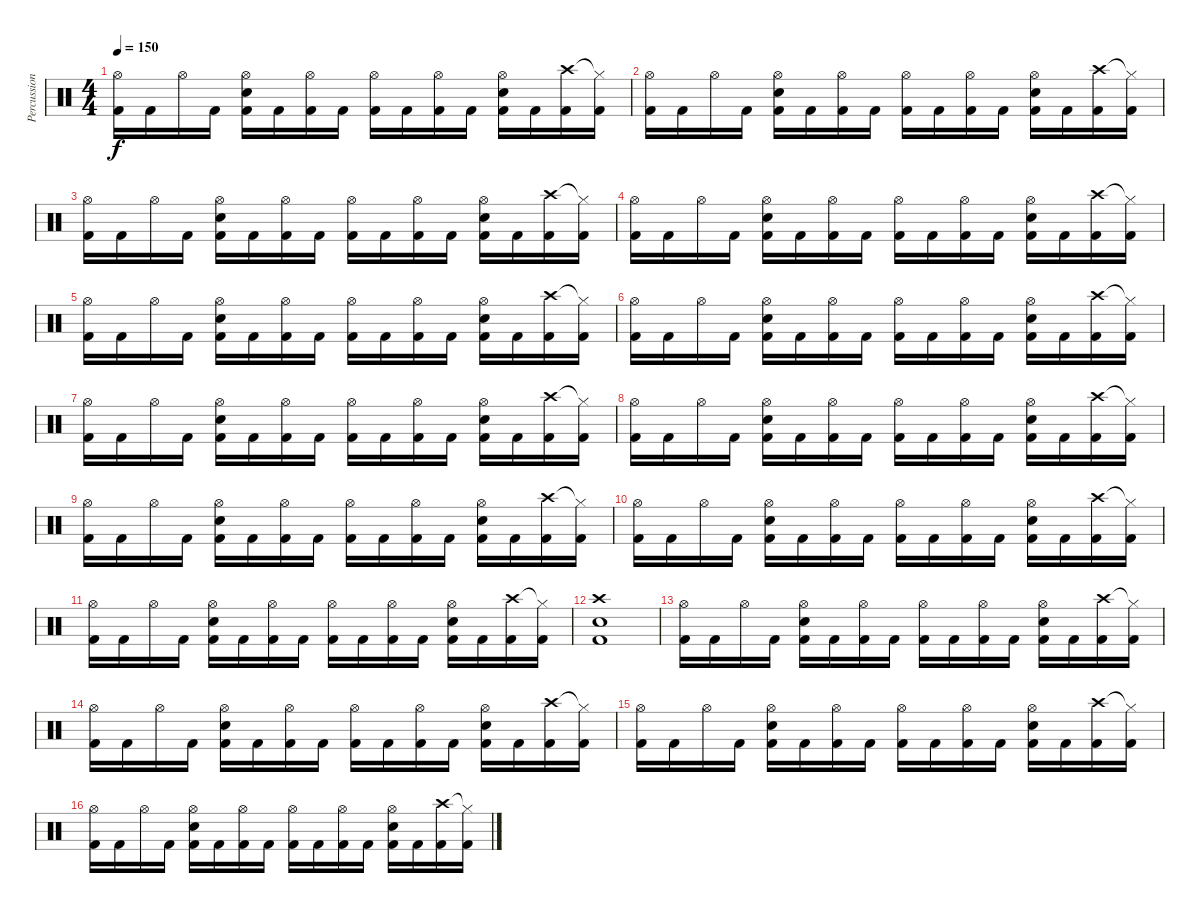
\track ("Percussion" "Percussion") {instrument percussion}
\staff {score}
\articulation defaults
\ts (4 4)
\tempo 150
\clef neutral
\ks c
("Hi-Hat (open)" "Kick (hit) 2").16{dy f} "Kick (hit) 2".16 "Hi-Hat (open)".16 "Kick (hit) 2".16 ("Hi-Hat (open)" "Electric Snare (hit)" "Kick (hit) 2").16 "Kick (hit) 2".16 ("Hi-Hat (open)" "Kick (hit) 2").16 "Kick (hit) 2".16 ("Hi-Hat (open)" "Kick (hit) 2").16 "Kick (hit) 2".16 ("Hi-Hat (open)" "Kick (hit) 2").16 "Kick (hit) 2".16 ("Hi-Hat (open)" "Electric Snare (hit)" "Kick (hit) 2").16 "Kick (hit) 2".16 ("Crash high (hit)" "Kick (hit) 2").16 ("Hi-Hat (closed)"{t} "Kick (hit) 2").16 |
("Hi-Hat (open)" "Kick (hit) 2").16 "Kick (hit) 2".16 "Hi-Hat (open)".16 "Kick (hit) 2".16 ("Hi-Hat (open)" "Electric Snare (hit)" "Kick (hit) 2").16 "Kick (hit) 2".16 ("Hi-Hat (open)" "Kick (hit) 2").16 "Kick (hit) 2".16 ("Hi-Hat (open)" "Kick (hit) 2").16 "Kick (hit) 2".16 ("Hi-Hat (open)" "Kick (hit) 2").16 "Kick (hit) 2".16 ("Hi-Hat (open)" "Electric Snare (hit)" "Kick (hit) 2").16 "Kick (hit) 2".16 ("Crash high (hit)" "Kick (hit) 2").16 ("Hi-Hat (closed)"{t} "Kick (hit) 2").16 |
("Hi-Hat (open)" "Kick (hit) 2").16 "Kick (hit) 2".16 "Hi-Hat (open)".16 "Kick (hit) 2".16 ("Hi-Hat (open)" "Electric Snare (hit)" "Kick (hit) 2").16 "Kick (hit) 2".16 ("Hi-Hat (open)" "Kick (hit) 2").16 "Kick (hit) 2".16 ("Hi-Hat (open)" "Kick (hit) 2").16 "Kick (hit) 2".16 ("Hi-Hat (open)" "Kick (hit) 2").16 "Kick (hit) 2".16 ("Hi-Hat (open)" "Electric Snare (hit)" "Kick (hit) 2").16 "Kick (hit) 2".16 ("Crash high (hit)" "Kick (hit) 2").16 ("Hi-Hat (closed)"{t} "Kick (hit) 2").16 |
("Hi-Hat (open)" "Kick (hit) 2").16 "Kick (hit) 2".16 "Hi-Hat (open)".16 "Kick (hit) 2".16 ("Hi-Hat (open)" "Electric Snare (hit)" "Kick (hit) 2").16 "Kick (hit) 2".16 ("Hi-Hat (open)" "Kick (hit) 2").16 "Kick (hit) 2".16 ("Hi-Hat (open)" "Kick (hit) 2").16 "Kick (hit) 2".16 ("Hi-Hat (open)" "Kick (hit) 2").16 "Kick (hit) 2".16 ("Hi-Hat (open)" "Electric Snare (hit)" "Kick (hit) 2").16 "Kick (hit) 2".16 ("Crash high (hit)" "Kick (hit) 2").16 ("Hi-Hat (closed)"{t} "Kick (hit) 2").16 |
("Hi-Hat (open)" "Kick (hit) 2").16 "Kick (hit) 2".16 "Hi-Hat (open)".16 "Kick (hit) 2".16 ("Hi-Hat (open)" "Electric Snare (hit)" "Kick (hit) 2").16 "Kick (hit) 2".16 ("Hi-Hat (open)" "Kick (hit) 2").16 "Kick (hit) 2".16 ("Hi-Hat (open)" "Kick (hit) 2").16 "Kick (hit) 2".16 ("Hi-Hat (open)" "Kick (hit) 2").16 "Kick (hit) 2".16 ("Hi-Hat (open)" "Electric Snare (hit)" "Kick (hit) 2").16 "Kick (hit) 2".16 ("Crash high (hit)" "Kick (hit) 2").16 ("Hi-Hat (closed)"{t} "Kick (hit) 2").16 |
("Hi-Hat (open)" "Kick (hit) 2").16 "Kick (hit) 2".16 "Hi-Hat (open)".16 "Kick (hit) 2".16 ("Hi-Hat (open)" "Electric Snare (hit)" "Kick (hit) 2").16 "Kick (hit) 2".16 ("Hi-Hat (open)" "Kick (hit) 2").16 "Kick (hit) 2".16 ("Hi-Hat (open)" "Kick (hit) 2").16 "Kick (hit) 2".16 ("Hi-Hat (open)" "Kick (hit) 2").16 "Kick (hit) 2".16 ("Hi-Hat (open)" "Electric Snare (hit)" "Kick (hit) 2").16 "Kick (hit) 2".16 ("Crash high (hit)" "Kick (hit) 2").16 ("Hi-Hat (closed)"{t} "Kick (hit) 2").16 |
("Hi-Hat (open)" "Kick (hit) 2").16 "Kick (hit) 2".16 "Hi-Hat (open)".16 "Kick (hit) 2".16 ("Hi-Hat (open)" "Electric Snare (hit)" "Kick (hit) 2").16 "Kick (hit) 2".16 ("Hi-Hat (open)" "Kick (hit) 2").16 "Kick (hit) 2".16 ("Hi-Hat (open)" "Kick (hit) 2").16 "Kick (hit) 2".16 ("Hi-Hat (open)" "Kick (hit) 2").16 "Kick (hit) 2".16 ("Hi-Hat (open)" "Electric Snare (hit)" "Kick (hit) 2").16 "Kick (hit) 2".16 ("Crash high (hit)" "Kick (hit) 2").16 ("Hi-Hat (closed)"{t} "Kick (hit) 2").16 |
("Hi-Hat (open)" "Kick (hit) 2").16 "Kick (hit) 2".16 "Hi-Hat (open)".16 "Kick (hit) 2".16 ("Hi-Hat (open)" "Electric Snare (hit)" "Kick (hit) 2").16 "Kick (hit) 2".16 ("Hi-Hat (open)" "Kick (hit) 2").16 "Kick (hit) 2".16 ("Hi-Hat (open)" "Kick (hit) 2").16 "Kick (hit) 2".16 ("Hi-Hat (open)" "Kick (hit) 2").16 "Kick (hit) 2".16 ("Hi-Hat (open)" "Electric Snare (hit)" "Kick (hit) 2").16 "Kick (hit) 2".16 ("Crash high (hit)" "Kick (hit) 2").16 ("Hi-Hat (closed)"{t} "Kick (hit) 2").16 |
("Hi-Hat (open)" "Kick (hit) 2").16 "Kick (hit) 2".16 "Hi-Hat (open)".16 "Kick (hit) 2".16 ("Hi-Hat (open)" "Electric Snare (hit)" "Kick (hit) 2").16 "Kick (hit) 2".16 ("Hi-Hat (open)" "Kick (hit) 2").16 "Kick (hit) 2".16 ("Hi-Hat (open)" "Kick (hit) 2").16 "Kick (hit) 2".16 ("Hi-Hat (open)" "Kick (hit) 2").16 "Kick (hit) 2".16 ("Hi-Hat (open)" "Electric Snare (hit)" "Kick (hit) 2").16 "Kick (hit) 2".16 ("Crash high (hit)" "Kick (hit) 2").16 ("Hi-Hat (closed)"{t} "Kick (hit) 2").16 |
("Hi-Hat (open)" "Kick (hit) 2").16 "Kick (hit) 2".16 "Hi-Hat (open)".16 "Kick (hit) 2".16 ("Hi-Hat (open)" "Electric Snare (hit)" "Kick (hit) 2").16 "Kick (hit) 2".16 ("Hi-Hat (open)" "Kick (hit) 2").16 "Kick (hit) 2".16 ("Hi-Hat (open)" "Kick (hit) 2").16 "Kick (hit) 2".16 ("Hi-Hat (open)" "Kick (hit) 2").16 "Kick (hit) 2".16 ("Hi-Hat (open)" "Electric Snare (hit)" "Kick (hit) 2").16 "Kick (hit) 2".16 ("Crash high (hit)" "Kick (hit) 2").16 ("Hi-Hat (closed)"{t} "Kick (hit) 2").16 |
("Hi-Hat (open)" "Kick (hit) 2").16 "Kick (hit) 2".16 "Hi-Hat (open)".16 "Kick (hit) 2".16 ("Hi-Hat (open)" "Electric Snare (hit)" "Kick (hit) 2").16 "Kick (hit) 2".16 ("Hi-Hat (open)" "Kick (hit) 2").16 "Kick (hit) 2".16 ("Hi-Hat (open)" "Kick (hit) 2").16 "Kick (hit) 2".16 ("Hi-Hat (open)" "Kick (hit) 2").16 "Kick (hit) 2".16 ("Hi-Hat (open)" "Electric Snare (hit)" "Kick (hit) 2").16 "Kick (hit) 2".16 ("Crash high (hit)" "Kick (hit) 2").16 ("Hi-Hat (closed)"{t} "Kick (hit) 2").16 |
("Crash high (hit)" "Electric Snare (hit)" "Kick (hit) 2").1 |
("Hi-Hat (open)" "Kick (hit) 2").16 "Kick (hit) 2".16 "Hi-Hat (open)".16 "Kick (hit) 2".16 ("Hi-Hat (open)" "Electric Snare (hit)" "Kick (hit) 2").16 "Kick (hit) 2".16 ("Hi-Hat (open)" "Kick (hit) 2").16 "Kick (hit) 2".16 ("Hi-Hat (open)" "Kick (hit) 2").16 "Kick (hit) 2".16 ("Hi-Hat (open)" "Kick (hit) 2").16 "Kick (hit) 2".16 ("Hi-Hat (open)" "Electric Snare (hit)" "Kick (hit) 2").16 "Kick (hit) 2".16 ("Crash high (hit)" "Kick (hit) 2").16 ("Hi-Hat (closed)"{t} "Kick (hit) 2").16 |
("Hi-Hat (open)" "Kick (hit) 2").16 "Kick (hit) 2".16 "Hi-Hat (open)".16 "Kick (hit) 2".16 ("Hi-Hat (open)" "Electric Snare (hit)" "Kick (hit) 2").16 "Kick (hit) 2".16 ("Hi-Hat (open)" "Kick (hit) 2").16 "Kick (hit) 2".16 ("Hi-Hat (open)" "Kick (hit) 2").16 "Kick (hit) 2".16 ("Hi-Hat (open)" "Kick (hit) 2").16 "Kick (hit) 2".16 ("Hi-Hat (open)" "Electric Snare (hit)" "Kick (hit) 2").16 "Kick (hit) 2".16 ("Crash high (hit)" "Kick (hit) 2").16 ("Hi-Hat (closed)"{t} "Kick (hit) 2").16 |
("Hi-Hat (open)" "Kick (hit) 2").16 "Kick (hit) 2".16 "Hi-Hat (open)".16 "Kick (hit) 2".16 ("Hi-Hat (open)" "Electric Snare (hit)" "Kick (hit) 2").16 "Kick (hit) 2".16 ("Hi-Hat (open)" "Kick (hit) 2").16 "Kick (hit) 2".16 ("Hi-Hat (open)" "Kick (hit) 2").16 "Kick (hit) 2".16 ("Hi-Hat (open)" "Kick (hit) 2").16 "Kick (hit) 2".16 ("Hi-Hat (open)" "Electric Snare (hit)" "Kick (hit) 2").16 "Kick (hit) 2".16 ("Crash high (hit)" "Kick (hit) 2").16 ("Hi-Hat (closed)"{t} "Kick (hit) 2").16 |
("Hi-Hat (open)" "Kick (hit) 2").16 "Kick (hit) 2".16 "Hi-Hat (open)".16 "Kick (hit) 2".16 ("Hi-Hat (open)" "Electric Snare (hit)" "Kick (hit) 2").16 "Kick (hit) 2".16 ("Hi-Hat (open)" "Kick (hit) 2").16 "Kick (hit) 2".16 ("Hi-Hat (open)" "Kick (hit) 2").16 "Kick (hit) 2".16 ("Hi-Hat (open)" "Kick (hit) 2").16 "Kick (hit) 2".16 ("Hi-Hat (open)" "Electric Snare (hit)" "Kick (hit) 2").16 "Kick (hit) 2".16 ("Crash high (hit)" "Kick (hit) 2").16 ("Hi-Hat (closed)"{t} "Kick (hit) 2").16
